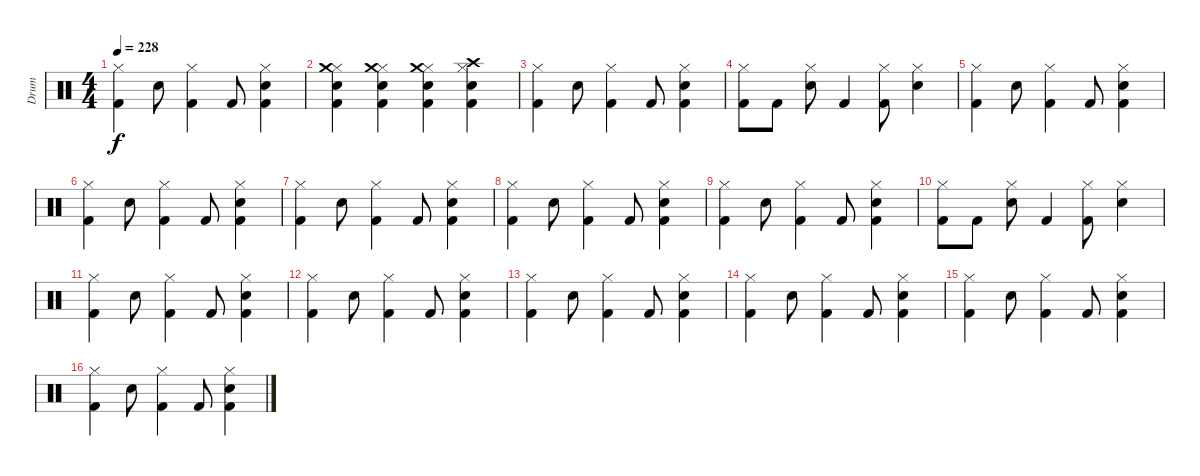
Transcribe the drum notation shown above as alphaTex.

\track ("Drum" "Drum") {instrument percussion}
\staff {score}
\articulation defaults
\ts (4 4)
\tempo 228
\clef neutral
\ks c
("Hi-Hat (closed)" "Kick (hit) 2").4{dy f} "Snare (hit) 2".8 ("Hi-Hat (closed)" "Kick (hit) 2").4 "Kick (hit) 2".8 ("Hi-Hat (closed)" "Snare (hit) 2" "Kick (hit) 2").4 |
("Hi-Hat (closed)" "Crash medium (hit)" "Snare (hit) 2" "Kick (hit) 2").4 ("Hi-Hat (closed)" "Crash medium (hit)" "Snare (hit) 2" "Kick (hit) 2").4 ("Hi-Hat (closed)" "Crash medium (hit)" "Snare (hit) 2" "Kick (hit) 2").4 ("Hi-Hat (closed)" "Crash high (hit)" "Snare (hit) 2" "Kick (hit) 2").4 |
("Hi-Hat (closed)" "Kick (hit) 2").4 "Snare (hit) 2".8 ("Hi-Hat (closed)" "Kick (hit) 2").4 "Kick (hit) 2".8 ("Hi-Hat (closed)" "Snare (hit) 2" "Kick (hit) 2").4 |
("Hi-Hat (closed)" "Kick (hit) 2").8 "Kick (hit) 2".8 ("Hi-Hat (closed)" "Snare (hit) 2").8 "Kick (hit) 2".4 ("Hi-Hat (closed)" "Kick (hit) 2").8 ("Hi-Hat (closed)" "Snare (hit) 2").4 |
("Hi-Hat (closed)" "Kick (hit) 2").4 "Snare (hit) 2".8 ("Hi-Hat (closed)" "Kick (hit) 2").4 "Kick (hit) 2".8 ("Hi-Hat (closed)" "Snare (hit) 2" "Kick (hit) 2").4 |
("Hi-Hat (closed)" "Kick (hit) 2").4 "Snare (hit) 2".8 ("Hi-Hat (closed)" "Kick (hit) 2").4 "Kick (hit) 2".8 ("Hi-Hat (closed)" "Snare (hit) 2" "Kick (hit) 2").4 |
("Hi-Hat (closed)" "Kick (hit) 2").4 "Snare (hit) 2".8 ("Hi-Hat (closed)" "Kick (hit) 2").4 "Kick (hit) 2".8 ("Hi-Hat (closed)" "Snare (hit) 2" "Kick (hit) 2").4 |
("Hi-Hat (closed)" "Kick (hit) 2").4 "Snare (hit) 2".8 ("Hi-Hat (closed)" "Kick (hit) 2").4 "Kick (hit) 2".8 ("Hi-Hat (closed)" "Snare (hit) 2" "Kick (hit) 2").4 |
("Hi-Hat (closed)" "Kick (hit) 2").4 "Snare (hit) 2".8 ("Hi-Hat (closed)" "Kick (hit) 2").4 "Kick (hit) 2".8 ("Hi-Hat (closed)" "Snare (hit) 2" "Kick (hit) 2").4 |
("Hi-Hat (closed)" "Kick (hit) 2").8 "Kick (hit) 2".8 ("Hi-Hat (closed)" "Snare (hit) 2").8 "Kick (hit) 2".4 ("Hi-Hat (closed)" "Kick (hit) 2").8 ("Hi-Hat (closed)" "Snare (hit) 2").4 |
("Hi-Hat (closed)" "Kick (hit) 2").4 "Snare (hit) 2".8 ("Hi-Hat (closed)" "Kick (hit) 2").4 "Kick (hit) 2".8 ("Hi-Hat (closed)" "Snare (hit) 2" "Kick (hit) 2").4 |
("Hi-Hat (closed)" "Kick (hit) 2").4 "Snare (hit) 2".8 ("Hi-Hat (closed)" "Kick (hit) 2").4 "Kick (hit) 2".8 ("Hi-Hat (closed)" "Snare (hit) 2" "Kick (hit) 2").4 |
("Hi-Hat (closed)" "Kick (hit) 2").4 "Snare (hit) 2".8 ("Hi-Hat (closed)" "Kick (hit) 2").4 "Kick (hit) 2".8 ("Hi-Hat (closed)" "Snare (hit) 2" "Kick (hit) 2").4 |
("Hi-Hat (closed)" "Kick (hit) 2").4 "Snare (hit) 2".8 ("Hi-Hat (closed)" "Kick (hit) 2").4 "Kick (hit) 2".8 ("Hi-Hat (closed)" "Snare (hit) 2" "Kick (hit) 2").4 |
("Hi-Hat (closed)" "Kick (hit) 2").4 "Snare (hit) 2".8 ("Hi-Hat (closed)" "Kick (hit) 2").4 "Kick (hit) 2".8 ("Hi-Hat (closed)" "Snare (hit) 2" "Kick (hit) 2").4 |
("Hi-Hat (closed)" "Kick (hit) 2").4 "Snare (hit) 2".8 ("Hi-Hat (closed)" "Kick (hit) 2").4 "Kick (hit) 2".8 ("Hi-Hat (closed)" "Snare (hit) 2" "Kick (hit) 2").4
